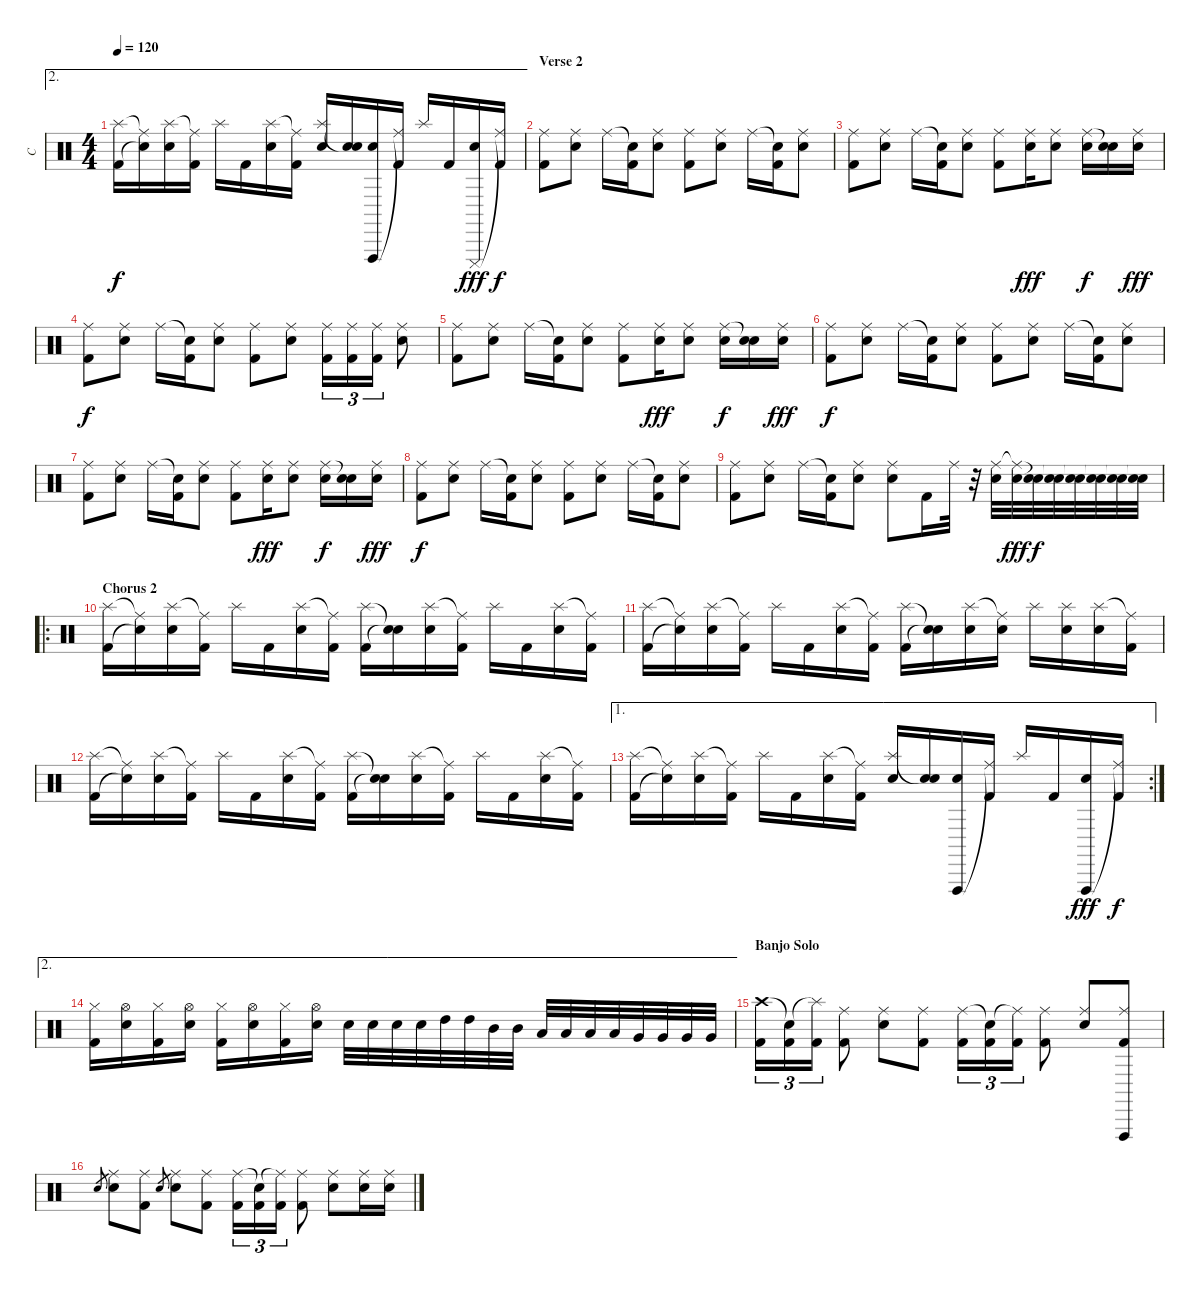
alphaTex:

\track ("C" "C") {instrument percussion}
\staff {score}
\articulation defaults
\ae 2
\ts (4 4)
\tempo 120
\clef neutral
\ks c
("Splash (hit)" "Kick (hit) 2").16{dy f} ("Ride (middle)"{t} "Snare (hit)"{t}).16 ("Splash (hit)" "Electric Snare (hit)").16 ("Ride (middle)"{t} "Kick (hit) 2").16 "Splash (hit)".16 "Kick (hit) 2".16 ("Splash (hit)" "Electric Snare (hit)").16 ("Ride (middle)"{t} "Kick (hit) 2").16 ("Splash (hit)" "Electric Snare (hit)").16 ("Snare (hit)"{t} "Electric Snare (hit)").16 ("Vibraslap (hit)" "Electric Snare (hit)").16 ("Ride (middle)"{t} "Kick (hit) 2").16 "Splash (hit)".16 "Kick (hit) 2".16 ("Cuica (mute)" "Electric Snare (hit)").16{dy fff} ("Ride (middle)"{t} "Kick (hit) 2").16{dy f} |
\section ("" "Verse 2")
("Ride (middle)" "Kick (hit) 2").8 ("Ride (middle)" "Electric Snare (hit)").8 "Ride (middle)".16 ("Snare (hit)"{t} "Kick (hit) 2").16 ("Ride (middle)" "Electric Snare (hit)").8 ("Ride (middle)" "Kick (hit) 2").8 ("Ride (middle)" "Electric Snare (hit)").8 "Ride (middle)".16 ("Snare (hit)"{t} "Kick (hit) 2").16 ("Ride (middle)" "Electric Snare (hit)").8 |
("Ride (middle)" "Kick (hit) 2").8 ("Ride (middle)" "Electric Snare (hit)").8 "Ride (middle)".16 ("Snare (hit)"{t} "Kick (hit) 2").16 ("Ride (middle)" "Electric Snare (hit)").8 ("Ride (middle)" "Kick (hit) 2").8 ("Ride (middle)" "Electric Snare (hit)").16{dy fff} ("Ride (middle)" "Electric Snare (hit)").8 ("Ride (middle)" "Electric Snare (hit)").16{dy f} ("Snare (hit)"{t} "Electric Snare (hit)").16 ("Ride (middle)" "Electric Snare (hit)").16{dy fff} |
("Ride (middle)" "Kick (hit) 2").8{dy f} ("Ride (middle)" "Electric Snare (hit)").8 "Ride (middle)".16 ("Snare (hit)"{t} "Kick (hit) 2").16 ("Ride (middle)" "Electric Snare (hit)").8 ("Ride (middle)" "Kick (hit) 2").8 ("Ride (middle)" "Electric Snare (hit)").8 ("Ride (middle)" "Kick (hit) 2").16{tu (3 2)} ("Ride (middle)" "Kick (hit) 2").16{tu (3 2)} ("Ride (middle)" "Kick (hit) 2").16{tu (3 2)} ("Ride (middle)" "Electric Snare (hit)").8 |
("Ride (middle)" "Kick (hit) 2").8 ("Ride (middle)" "Electric Snare (hit)").8 "Ride (middle)".16 ("Snare (hit)"{t} "Kick (hit) 2").16 ("Ride (middle)" "Electric Snare (hit)").8 ("Ride (middle)" "Kick (hit) 2").8 ("Ride (middle)" "Electric Snare (hit)").16{dy fff} ("Ride (middle)" "Electric Snare (hit)").8 ("Ride (middle)" "Electric Snare (hit)").16{dy f} ("Snare (hit)"{t} "Electric Snare (hit)").16 ("Ride (middle)" "Electric Snare (hit)").16{dy fff} |
("Ride (middle)" "Kick (hit) 2").8{dy f} ("Ride (middle)" "Electric Snare (hit)").8 "Ride (middle)".16 ("Snare (hit)"{t} "Kick (hit) 2").16 ("Ride (middle)" "Electric Snare (hit)").8 ("Ride (middle)" "Kick (hit) 2").8 ("Ride (middle)" "Electric Snare (hit)").8 "Ride (middle)".16 ("Snare (hit)"{t} "Kick (hit) 2").16 ("Ride (middle)" "Electric Snare (hit)").8 |
("Ride (middle)" "Kick (hit) 2").8 ("Ride (middle)" "Electric Snare (hit)").8 "Ride (middle)".16 ("Snare (hit)"{t} "Kick (hit) 2").16 ("Ride (middle)" "Electric Snare (hit)").8 ("Ride (middle)" "Kick (hit) 2").8 ("Ride (middle)" "Electric Snare (hit)").16{dy fff} ("Ride (middle)" "Electric Snare (hit)").8 ("Ride (middle)" "Electric Snare (hit)").16{dy f} ("Snare (hit)"{t} "Electric Snare (hit)").16 ("Ride (middle)" "Electric Snare (hit)").16{dy fff} |
("Ride (middle)" "Kick (hit) 2").8{dy f} ("Ride (middle)" "Electric Snare (hit)").8 "Ride (middle)".16 ("Snare (hit)"{t} "Kick (hit) 2").16 ("Ride (middle)" "Electric Snare (hit)").8 ("Ride (middle)" "Kick (hit) 2").8 ("Ride (middle)" "Electric Snare (hit)").8 "Ride (middle)".16 ("Snare (hit)"{t} "Kick (hit) 2").16 ("Ride (middle)" "Electric Snare (hit)").8 |
("Ride (middle)" "Kick (hit) 2").8 ("Ride (middle)" "Electric Snare (hit)").8 "Ride (middle)".16 ("Snare (hit)"{t} "Kick (hit) 2").16 ("Ride (middle)" "Electric Snare (hit)").8 ("Ride (middle)" "Electric Snare (hit)").8 "Kick (hit) 2".16 "Ride (middle)".32 r.32 ("Ride (middle)" "Electric Snare (hit)").32 ("Ride (middle)"{t} "Electric Snare (hit)").32{dy fff} ("Snare (hit)"{t} "Electric Snare (hit)").32{dy f} ("Snare (hit)"{t} "Electric Snare (hit)").32 ("Snare (hit)"{t} "Electric Snare (hit)").32 ("Snare (hit)"{t} "Electric Snare (hit)").32 ("Snare (hit)"{t} "Electric Snare (hit)").32 ("Snare (hit)"{t} "Electric Snare (hit)").32 |
\ro
\section ("" "Chorus 2")
("Splash (hit)" "Kick (hit) 2").16 ("Ride (middle)"{t} "Snare (hit)"{t}).16 ("Splash (hit)" "Electric Snare (hit)").16 ("Ride (middle)"{t} "Kick (hit) 2").16 "Splash (hit)".16 "Kick (hit) 2".16 ("Splash (hit)" "Electric Snare (hit)").16 ("Ride (middle)"{t} "Kick (hit) 2").16 ("Splash (hit)" "Kick (hit) 2").16 ("Snare (hit)"{t} "Snare (hit)"{t}).16 ("Splash (hit)" "Electric Snare (hit)").16 ("Ride (middle)"{t} "Kick (hit) 2").16 "Splash (hit)".16 "Kick (hit) 2".16 ("Splash (hit)" "Electric Snare (hit)").16 ("Ride (middle)"{t} "Kick (hit) 2").16 |
("Splash (hit)" "Kick (hit) 2").16 ("Ride (middle)"{t} "Snare (hit)"{t}).16 ("Splash (hit)" "Electric Snare (hit)").16 ("Ride (middle)"{t} "Kick (hit) 2").16 "Splash (hit)".16 "Kick (hit) 2".16 ("Splash (hit)" "Electric Snare (hit)").16 ("Ride (middle)"{t} "Kick (hit) 2").16 ("Splash (hit)" "Kick (hit) 2").16 ("Snare (hit)"{t} "Snare (hit)"{t}).16 ("Splash (hit)" "Electric Snare (hit)").16 ("Ride (middle)"{t} "Electric Snare (hit)").16 "Splash (hit)".16 ("Splash (hit)" "Electric Snare (hit)").16 ("Splash (hit)" "Electric Snare (hit)").16 ("Ride (middle)"{t} "Kick (hit) 2").16 |
("Splash (hit)" "Kick (hit) 2").16 ("Ride (middle)"{t} "Snare (hit)"{t}).16 ("Splash (hit)" "Electric Snare (hit)").16 ("Ride (middle)"{t} "Kick (hit) 2").16 "Splash (hit)".16 "Kick (hit) 2".16 ("Splash (hit)" "Electric Snare (hit)").16 ("Ride (middle)"{t} "Kick (hit) 2").16 ("Splash (hit)" "Kick (hit) 2").16 ("Snare (hit)"{t} "Snare (hit)"{t}).16 ("Splash (hit)" "Electric Snare (hit)").16 ("Ride (middle)"{t} "Kick (hit) 2").16 "Splash (hit)".16 "Kick (hit) 2".16 ("Splash (hit)" "Electric Snare (hit)").16 ("Ride (middle)"{t} "Kick (hit) 2").16 |
\ae 1
\rc 2
("Splash (hit)" "Kick (hit) 2").16 ("Ride (middle)"{t} "Snare (hit)"{t}).16 ("Splash (hit)" "Electric Snare (hit)").16 ("Ride (middle)"{t} "Kick (hit) 2").16 "Splash (hit)".16 "Kick (hit) 2".16 ("Splash (hit)" "Electric Snare (hit)").16 ("Ride (middle)"{t} "Kick (hit) 2").16 ("Splash (hit)" "Electric Snare (hit)").16 ("Snare (hit)"{t} "Electric Snare (hit)").16 ("Vibraslap (hit)" "Electric Snare (hit)").16 ("Ride (middle)"{t} "Kick (hit) 2").16 "Splash (hit)".16 "Kick (hit) 2".16 ("Vibraslap (hit)" "Electric Snare (hit)").16{dy fff} ("Ride (middle)"{t} "Kick (hit) 2").16{dy f} |
\ae 2
("Hi-Hat (closed)" "Kick (hit) 2").16 ("Hi-Hat (open)" "Electric Snare (hit)").16 ("Hi-Hat (closed)" "Kick (hit) 2").16 ("Hi-Hat (open)" "Electric Snare (hit)").16 ("Hi-Hat (closed)" "Kick (hit) 2").16 ("Hi-Hat (open)" "Electric Snare (hit)").16 ("Hi-Hat (closed)" "Kick (hit) 2").16 ("Hi-Hat (open)" "Electric Snare (hit)").16 "Electric Snare (hit)".32 "Electric Snare (hit)".32 "Electric Snare (hit)".32 "Electric Snare (hit)".32 "High Tom (hit)".32 "High Tom (hit)".32 "Mid Tom (hit)".32 "Mid Tom (hit)".32 "Low Tom (hit)".32 "Low Tom (hit)".32 "Low Tom (hit)".32 "Low Tom (hit)".32 "Very Low Tom (hit)".32 "Very Low Tom (hit)".32 "Very Low Tom (hit)".32 "Very Low Tom (hit)".32 |
\section ("" "Banjo Solo")
("Crash high (hit)" "Kick (hit) 2").16{tu (3 2)} ("Snare (hit)"{t} "Kick (hit) 2").16{tu (3 2)} ("Splash (hit)"{t} "Kick (hit) 2").16{tu (3 2)} ("Ride (middle)" "Kick (hit) 2").8 ("Ride (middle)" "Electric Snare (hit)").8 ("Ride (middle)" "Kick (hit) 2").8 ("Ride (middle)" "Kick (hit) 2").16{tu (3 2)} ("Snare (hit)"{t} "Kick (hit) 2").16{tu (3 2)} ("Ride (middle)"{t} "Kick (hit) 2").16{tu (3 2)} ("Ride (middle)" "Kick (hit) 2").8 ("Ride (middle)" "Electric Snare (hit)").8 ("Ride (middle)" "Vibraslap (hit)" "Kick (hit) 2").8 |
"Electric Snare (hit)".8{gr} ("Ride (middle)" "Electric Snare (hit)").8 ("Ride (middle)" "Kick (hit) 2").8 "Electric Snare (hit)".8{gr} ("Ride (middle)" "Electric Snare (hit)").8 ("Ride (middle)" "Kick (hit) 2").8 ("Ride (middle)" "Kick (hit) 2").16{tu (3 2)} ("Snare (hit)"{t} "Kick (hit) 2").16{tu (3 2)} ("Ride (middle)"{t} "Kick (hit) 2").16{tu (3 2)} ("Ride (middle)" "Kick (hit) 2").8 ("Ride (middle)" "Electric Snare (hit)").8 ("Ride (middle)" "Electric Snare (hit)").16 ("Ride (middle)" "Electric Snare (hit)").16
